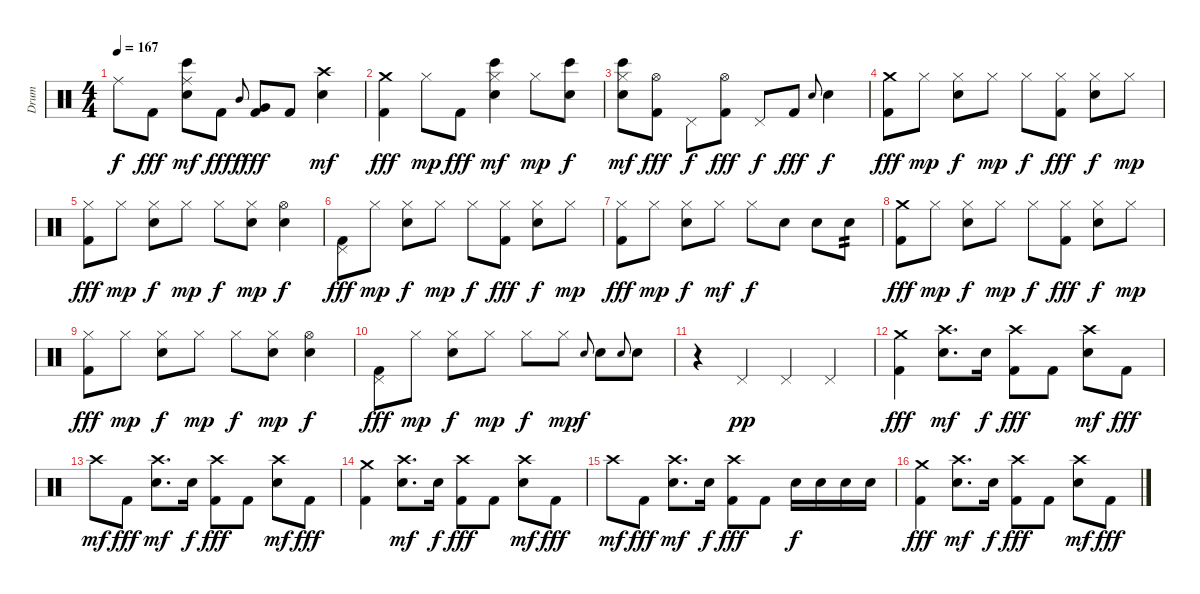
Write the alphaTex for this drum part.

\track ("Drum" "Drum") {instrument percussion}
\staff {score}
\articulation defaults
\ts (4 4)
\tempo 167
\clef neutral
\ks c "Ride (middle)".8{dy f} "Kick (hit) 2".8{dy fff}
("Ride (middle)" "Bongo High (hit)" "Snare (hit) 2").8{dy mf} "Kick (hit) 2".8{dy fff} "Mid Tom (hit)".8{gr onbeat dy f} ("Very Low Tom (hit)" "Kick (hit) 2").8{dy fff} "Kick (hit) 2".8 ("Crash high (hit)" "Electric Snare (hit)").4{dy mf} |
("Crash medium (hit)" "Kick (hit) 2").4{dy fff} "Hi-Hat (closed)".8{dy mp} "Kick (hit) 2".8{dy fff} ("Hi-Hat (closed)" "Bongo High (hit)" "Snare (hit) 2").4{dy mf} "Hi-Hat (closed)".8{dy mp} ("Bongo High (hit)" "Snare (hit) 2").8{dy f} |
("Hi-Hat (closed)" "Bongo High (hit)" "Snare (hit) 2").8{dy mf} ("Hi-Hat (open)" "Kick (hit) 2").8{dy fff} "Pedal Hi-Hat (hit)".8{dy f} ("Hi-Hat (open)" "Kick (hit) 2").8{dy fff} "Pedal Hi-Hat (hit)".8{dy f} "Kick (hit) 2".8{dy fff} "Electric Snare (hit)".8{gr onbeat} "Electric Snare (hit)".4{dy f} |
("Crash medium (hit)" "Kick (hit) 2").8{dy fff} "Hi-Hat (closed)".8{dy mp} ("Hi-Hat (closed)" "Electric Snare (hit)").8{dy f} "Hi-Hat (closed)".8{dy mp} "Hi-Hat (closed)".8{dy f} ("Hi-Hat (closed)" "Kick (hit) 2").8{dy fff} ("Hi-Hat (closed)" "Electric Snare (hit)").8{dy f} "Hi-Hat (closed)".8{dy mp} |
("Hi-Hat (closed)" "Kick (hit) 2").8{dy fff} "Hi-Hat (closed)".8{dy mp} ("Hi-Hat (closed)" "Electric Snare (hit)").8{dy f} "Hi-Hat (closed)".8{dy mp} "Hi-Hat (closed)".8{dy f} ("Hi-Hat (closed)" "Electric Snare (hit)").8{dy mp} ("Hi-Hat (open)" "Electric Snare (hit)").4{dy f} |
("Pedal Hi-Hat (hit)" "Kick (hit) 2").8{dy fff} "Hi-Hat (closed)".8{dy mp} ("Hi-Hat (closed)" "Electric Snare (hit)").8{dy f} "Hi-Hat (closed)".8{dy mp} "Hi-Hat (closed)".8{dy f} ("Hi-Hat (closed)" "Kick (hit) 2").8{dy fff} ("Hi-Hat (closed)" "Electric Snare (hit)").8{dy f} "Hi-Hat (closed)".8{dy mp} |
("Hi-Hat (closed)" "Kick (hit) 2").8{dy fff} "Hi-Hat (closed)".8{dy mp} ("Hi-Hat (closed)" "Electric Snare (hit)").8{dy f} "Hi-Hat (closed)".8{dy mf} "Hi-Hat (closed)".8{dy f} "Electric Snare (hit)".8 "Electric Snare (hit)".8 "Electric Snare (hit)".8{tp 2} |
("Crash medium (hit)" "Kick (hit) 2").8{dy fff} "Hi-Hat (closed)".8{dy mp} ("Hi-Hat (closed)" "Electric Snare (hit)").8{dy f} "Hi-Hat (closed)".8{dy mp} "Hi-Hat (closed)".8{dy f} ("Hi-Hat (closed)" "Kick (hit) 2").8{dy fff} ("Hi-Hat (closed)" "Electric Snare (hit)").8{dy f} "Hi-Hat (closed)".8{dy mp} |
("Hi-Hat (closed)" "Kick (hit) 2").8{dy fff} "Hi-Hat (closed)".8{dy mp} ("Hi-Hat (closed)" "Electric Snare (hit)").8{dy f} "Hi-Hat (closed)".8{dy mp} "Hi-Hat (closed)".8{dy f} ("Hi-Hat (closed)" "Electric Snare (hit)").8{dy mp} ("Hi-Hat (open)" "Electric Snare (hit)").4{dy f} |
("Pedal Hi-Hat (hit)" "Kick (hit) 2").8{dy fff} "Hi-Hat (closed)".8{dy mp} ("Hi-Hat (closed)" "Electric Snare (hit)").8{dy f} "Hi-Hat (closed)".8{dy mp} "Hi-Hat (closed)".8{dy f} "Hi-Hat (closed)".8{dy mp} "Electric Snare (hit)".8{gr onbeat dy f} "Electric Snare (hit)".8 "Electric Snare (hit)".8{gr onbeat} "Electric Snare (hit)".8 |
r.4 "Pedal Hi-Hat (hit)".4{dy pp} "Pedal Hi-Hat (hit)".4 "Pedal Hi-Hat (hit)".4 |
("Crash medium (hit)" "Kick (hit) 2").4{dy fff} ("Crash high (hit)" "Electric Snare (hit)").8{d dy mf} "Electric Snare (hit)".16{dy f} ("Crash high (hit)" "Kick (hit) 2").8{dy fff} "Kick (hit) 2".8 ("Crash high (hit)" "Electric Snare (hit)").8{dy mf} "Kick (hit) 2".8{dy fff} |
"Crash high (hit)".8{dy mf} "Kick (hit) 2".8{dy fff} ("Crash high (hit)" "Electric Snare (hit)").8{d dy mf} "Electric Snare (hit)".16{dy f} ("Crash high (hit)" "Kick (hit) 2").8{dy fff} "Kick (hit) 2".8 ("Crash high (hit)" "Electric Snare (hit)").8{dy mf} "Kick (hit) 2".8{dy fff} |
("Crash medium (hit)" "Kick (hit) 2").4 ("Crash high (hit)" "Electric Snare (hit)").8{d dy mf} "Electric Snare (hit)".16{dy f} ("Crash high (hit)" "Kick (hit) 2").8{dy fff} "Kick (hit) 2".8 ("Crash high (hit)" "Electric Snare (hit)").8{dy mf} "Kick (hit) 2".8{dy fff} |
"Crash high (hit)".8{dy mf} "Kick (hit) 2".8{dy fff} ("Crash high (hit)" "Electric Snare (hit)").8{d dy mf} "Electric Snare (hit)".16{dy f} ("Crash high (hit)" "Kick (hit) 2").8{dy fff} "Kick (hit) 2".8 "Electric Snare (hit)".16{dy f} "Electric Snare (hit)".16 "Electric Snare (hit)".16 "Electric Snare (hit)".16 |
("Crash medium (hit)" "Kick (hit) 2").4{dy fff} ("Crash high (hit)" "Electric Snare (hit)").8{d dy mf} "Electric Snare (hit)".16{dy f} ("Crash high (hit)" "Kick (hit) 2").8{dy fff} "Kick (hit) 2".8 ("Crash high (hit)" "Electric Snare (hit)").8{dy mf} "Kick (hit) 2".8{dy fff}
